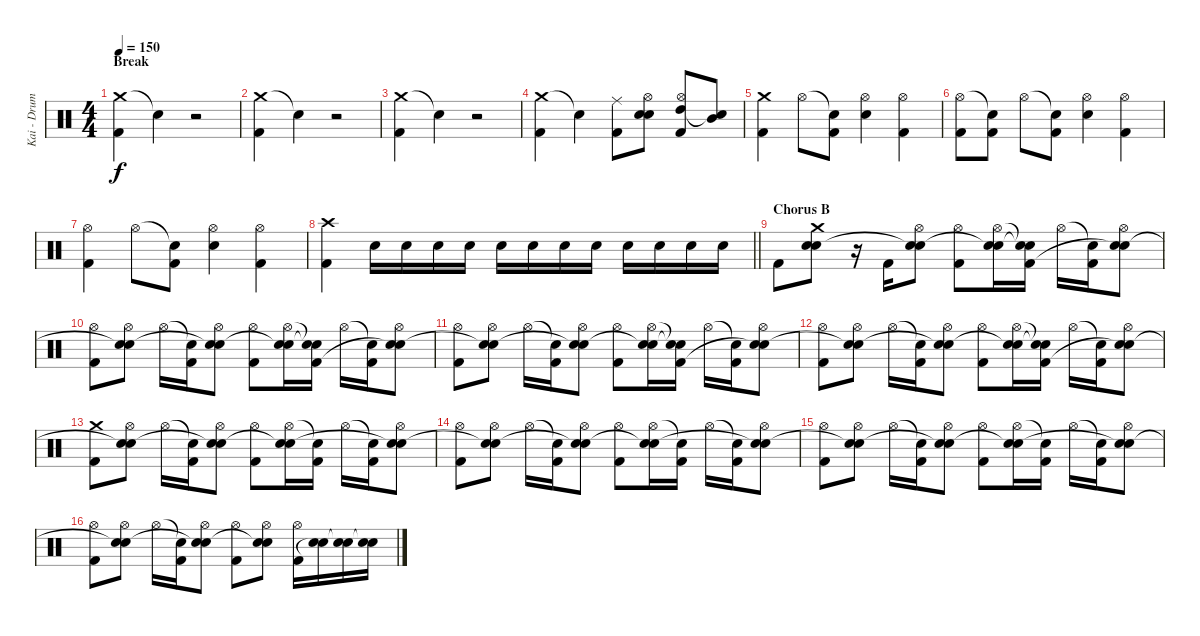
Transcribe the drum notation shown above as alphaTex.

\track ("Kai - Drums" "Kai - Drum") {instrument percussion}
\staff {score}
\articulation defaults
\ts (4 4)
\section ("" "Break")
\tempo 150
\clef neutral
\ks c
("Crash medium (hit)" "Kick (hit) 2").4{dy f} "Snare (hit)"{t}.4 r.2 |
("Crash medium (hit)" "Kick (hit) 2").4 "Snare (hit)"{t}.4 r.2 |
("Crash medium (hit)" "Kick (hit) 2").4 "Snare (hit)"{t}.4 r.2 |
("Crash medium (hit)" "Kick (hit) 2").4 "Snare (hit)"{t}.4 ("Ride (middle)" "Kick (hit) 2").8 ("Hi-Hat (open)" "Snare (hit) 2" "Snare (hit)").8 ("Hi-Hat (open)" "High Tom (hit)" "Kick (hit) 2").8 ("Mid Tom (hit)" "Snare (hit)"{t}).8 |
("Crash medium (hit)" "Kick (hit) 2").4 "Hi-Hat (open)".8 ("Snare (hit)"{t} "Kick (hit) 2").8 ("Hi-Hat (open)" "Snare (hit) 2").4 ("Hi-Hat (open)" "Kick (hit) 2").4 |
("Hi-Hat (open)" "Kick (hit) 2").8 ("Snare (hit)"{t} "Kick (hit) 2").8 "Hi-Hat (open)".8 ("Snare (hit)"{t} "Kick (hit) 2").8 ("Hi-Hat (open)" "Snare (hit) 2").4 ("Hi-Hat (open)" "Kick (hit) 2").4 |
("Hi-Hat (open)" "Kick (hit) 2").4 "Hi-Hat (open)".8 ("Snare (hit)"{t} "Kick (hit) 2").8 ("Hi-Hat (open)" "Snare (hit) 2").4 ("Hi-Hat (open)" "Kick (hit) 2").4 |
\barLineRight lightlight
("Crash high (hit)" "Kick (hit) 2").4 "Snare (hit) 2".16 "Snare (hit) 2".16 "Snare (hit) 2".16 "Snare (hit) 2".16 "Snare (hit) 2".16 "Snare (hit) 2".16 "Snare (hit) 2".16 "Snare (hit) 2".16 "Snare (hit) 2".16 "Snare (hit) 2".16 "Snare (hit) 2".16 "Snare (hit) 2".16 |
\section ("" "Chorus B")
"Kick (hit) 2".8 ("Crash medium (hit)" "Snare (hit) 2" "Snare (hit)").8 r.16 "Kick (hit) 2".16 ("Hi-Hat (open)" "Snare (hit) 2" "Snare (hit)"{t}).8 ("Hi-Hat (open)" "Kick (hit) 2").8 ("Hi-Hat (open)" "Snare (hit) 2" "Snare (hit)"{t}).16 ("Snare (hit)"{t} "Snare (hit)"{t} "Kick (hit) 2").16 "Hi-Hat (open)".16 ("Snare (hit)"{t} "Kick (hit) 2").16 ("Hi-Hat (open)" "Snare (hit) 2" "Snare (hit)"{t}).8 |
("Hi-Hat (open)" "Kick (hit) 2").8 ("Hi-Hat (open)" "Snare (hit) 2" "Snare (hit)"{t}).8 "Hi-Hat (open)".16 ("Snare (hit)"{t} "Kick (hit) 2").16 ("Hi-Hat (open)" "Snare (hit) 2" "Snare (hit)"{t}).8 ("Hi-Hat (open)" "Kick (hit) 2").8 ("Hi-Hat (open)" "Snare (hit) 2" "Snare (hit)"{t}).16 ("Snare (hit)"{t} "Snare (hit)"{t} "Kick (hit) 2").16 "Hi-Hat (open)".16 ("Snare (hit)"{t} "Kick (hit) 2").16 ("Hi-Hat (open)" "Snare (hit) 2" "Snare (hit)"{t}).8 |
("Hi-Hat (open)" "Kick (hit) 2").8 ("Hi-Hat (open)" "Snare (hit) 2" "Snare (hit)"{t}).8 "Hi-Hat (open)".16 ("Snare (hit)"{t} "Kick (hit) 2").16 ("Hi-Hat (open)" "Snare (hit) 2" "Snare (hit)"{t}).8 ("Hi-Hat (open)" "Kick (hit) 2").8 ("Hi-Hat (open)" "Snare (hit) 2" "Snare (hit)"{t}).16 ("Snare (hit)"{t} "Snare (hit)"{t} "Kick (hit) 2").16 "Hi-Hat (open)".16 ("Snare (hit)"{t} "Kick (hit) 2").16 ("Hi-Hat (open)" "Snare (hit) 2" "Snare (hit)"{t}).8 |
("Hi-Hat (open)" "Kick (hit) 2").8 ("Hi-Hat (open)" "Snare (hit) 2" "Snare (hit)"{t}).8 "Hi-Hat (open)".16 ("Snare (hit)"{t} "Kick (hit) 2").16 ("Hi-Hat (open)" "Snare (hit) 2" "Snare (hit)"{t}).8 ("Hi-Hat (open)" "Kick (hit) 2").8 ("Hi-Hat (open)" "Snare (hit) 2" "Snare (hit)"{t}).16 ("Snare (hit)"{t} "Snare (hit)"{t} "Kick (hit) 2").16 "Hi-Hat (open)".16 ("Snare (hit)"{t} "Kick (hit) 2").16 ("Hi-Hat (open)" "Snare (hit) 2" "Snare (hit)"{t}).8 |
("Crash medium (hit)" "Kick (hit) 2").8 ("Hi-Hat (open)" "Snare (hit) 2" "Snare (hit)"{t}).8 "Hi-Hat (open)".16 ("Snare (hit)"{t} "Kick (hit) 2").16 ("Hi-Hat (open)" "Snare (hit) 2" "Snare (hit)"{t}).8 ("Hi-Hat (open)" "Kick (hit) 2").8 ("Hi-Hat (open)" "Snare (hit) 2" "Snare (hit)"{t}).16 ("Snare (hit)"{t} "Kick (hit) 2").16 "Hi-Hat (open)".16 ("Snare (hit)"{t} "Kick (hit) 2").16 ("Hi-Hat (open)" "Snare (hit) 2" "Snare (hit)"{t}).8 |
("Hi-Hat (open)" "Kick (hit) 2").8 ("Hi-Hat (open)" "Snare (hit) 2" "Snare (hit)"{t}).8 "Hi-Hat (open)".16 ("Snare (hit)"{t} "Kick (hit) 2").16 ("Hi-Hat (open)" "Snare (hit) 2" "Snare (hit)"{t}).8 ("Hi-Hat (open)" "Kick (hit) 2").8 ("Hi-Hat (open)" "Snare (hit) 2" "Snare (hit)"{t}).16 ("Snare (hit)"{t} "Kick (hit) 2").16 "Hi-Hat (open)".16 ("Snare (hit)"{t} "Kick (hit) 2").16 ("Hi-Hat (open)" "Snare (hit) 2" "Snare (hit)"{t}).8 |
("Hi-Hat (open)" "Kick (hit) 2").8 ("Hi-Hat (open)" "Snare (hit) 2" "Snare (hit)"{t}).8 "Hi-Hat (open)".16 ("Snare (hit)"{t} "Kick (hit) 2").16 ("Hi-Hat (open)" "Snare (hit) 2" "Snare (hit)"{t}).8 ("Hi-Hat (open)" "Kick (hit) 2").8 ("Hi-Hat (open)" "Snare (hit) 2" "Snare (hit)"{t}).16 ("Snare (hit)"{t} "Kick (hit) 2").16 "Hi-Hat (open)".16 ("Snare (hit)"{t} "Kick (hit) 2").16 ("Hi-Hat (open)" "Snare (hit) 2" "Snare (hit)"{t}).8 |
("Hi-Hat (open)" "Kick (hit) 2").8 ("Hi-Hat (open)" "Snare (hit) 2" "Snare (hit)"{t}).8 "Hi-Hat (open)".16 ("Snare (hit)"{t} "Kick (hit) 2").16 ("Hi-Hat (open)" "Snare (hit) 2" "Snare (hit)"{t}).8 ("Hi-Hat (open)" "Kick (hit) 2").8 ("Hi-Hat (open)" "Snare (hit) 2" "Snare (hit)"{t}).8 ("Hi-Hat (open)" "Kick (hit) 2").16 ("Snare (hit) 2" "Snare (hit)"{t}).16 ("Snare (hit) 2" "Snare (hit)"{t}).16 ("Snare (hit) 2" "Snare (hit)"{t}).16
